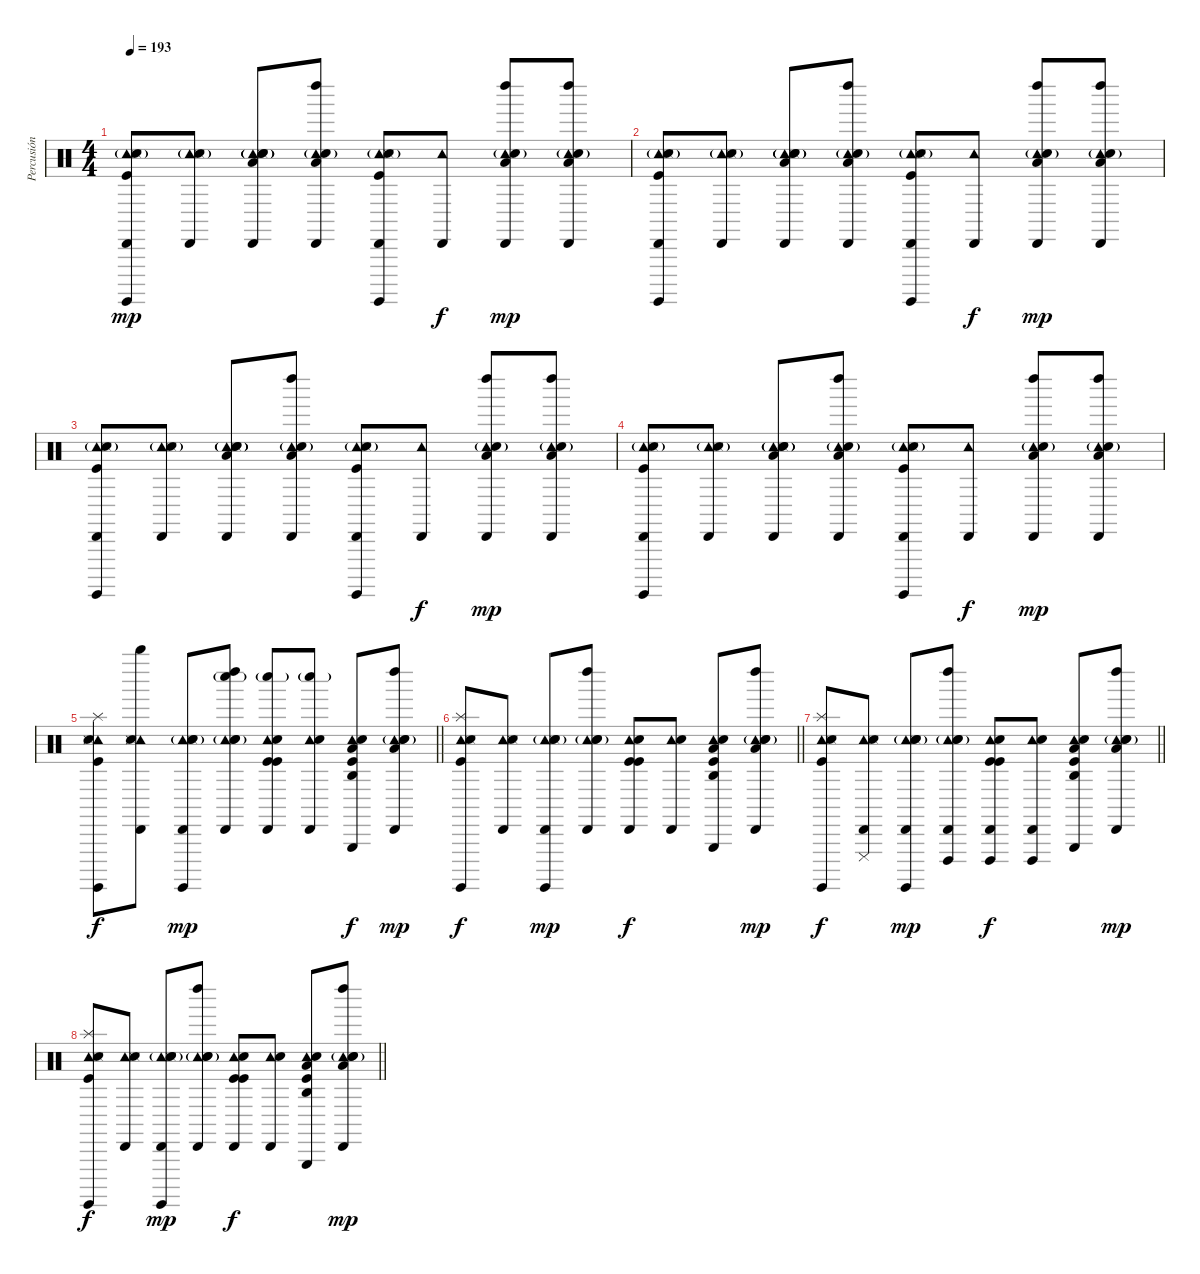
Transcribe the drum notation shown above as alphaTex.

\track ("Percusión" "Percusión") {instrument percussion}
\staff {score}
\articulation defaults
\ts (4 4)
\tempo 193
\clef neutral
\ks c
("Cabasa (hit)" "Tambourine (hit)" "Hand Clap (hit)"{g} "Metronome (hit)" "Surdo (hit)" "Kick (hit)").8{dy mp} ("Cabasa (hit)" "Tambourine (hit)" "Hand Clap (hit)"{g} "Metronome (hit)").8 ("Cabasa (hit)" "Tambourine (hit)" "Hand Clap (hit)"{g} "Metronome (hit)" "Low Tom (hit)" "Electric Snare (hit)"{g}).8 ("Cabasa (hit)" "Tambourine (hit)" "Left Maraca (hit)" "Low Tom (hit)" "Electric Snare (hit)"{g}).8 ("Cabasa (hit)" "Tambourine (hit)" "Hand Clap (hit)"{g} "Metronome (hit)" "Surdo (hit)" "Kick (hit)").8 ("Cabasa (hit)" "Tambourine (hit)").8{dy f} ("Cabasa (hit)" "Tambourine (hit)" "Left Maraca (hit)" "Low Tom (hit)" "Electric Snare (hit)"{g}).8{dy mp} ("Cabasa (hit)" "Tambourine (hit)" "Left Maraca (hit)" "Low Tom (hit)" "Electric Snare (hit)"{g}).8 |
("Cabasa (hit)" "Tambourine (hit)" "Hand Clap (hit)"{g} "Metronome (hit)" "Surdo (hit)" "Kick (hit)").8 ("Cabasa (hit)" "Tambourine (hit)" "Hand Clap (hit)"{g} "Metronome (hit)").8 ("Cabasa (hit)" "Tambourine (hit)" "Hand Clap (hit)"{g} "Metronome (hit)" "Low Tom (hit)" "Electric Snare (hit)"{g}).8 ("Cabasa (hit)" "Tambourine (hit)" "Left Maraca (hit)" "Low Tom (hit)" "Electric Snare (hit)"{g}).8 ("Cabasa (hit)" "Tambourine (hit)" "Hand Clap (hit)"{g} "Metronome (hit)" "Surdo (hit)" "Kick (hit)").8 ("Cabasa (hit)" "Tambourine (hit)").8{dy f} ("Cabasa (hit)" "Tambourine (hit)" "Left Maraca (hit)" "Low Tom (hit)" "Electric Snare (hit)"{g}).8{dy mp} ("Cabasa (hit)" "Tambourine (hit)" "Left Maraca (hit)" "Low Tom (hit)" "Electric Snare (hit)"{g}).8 |
("Cabasa (hit)" "Tambourine (hit)" "Hand Clap (hit)"{g} "Metronome (hit)" "Surdo (hit)" "Kick (hit)").8 ("Cabasa (hit)" "Tambourine (hit)" "Hand Clap (hit)"{g} "Metronome (hit)").8 ("Cabasa (hit)" "Tambourine (hit)" "Hand Clap (hit)"{g} "Metronome (hit)" "Low Tom (hit)" "Electric Snare (hit)"{g}).8 ("Cabasa (hit)" "Tambourine (hit)" "Left Maraca (hit)" "Low Tom (hit)" "Electric Snare (hit)"{g}).8 ("Cabasa (hit)" "Tambourine (hit)" "Hand Clap (hit)"{g} "Metronome (hit)" "Surdo (hit)" "Kick (hit)").8 ("Cabasa (hit)" "Tambourine (hit)").8{dy f} ("Cabasa (hit)" "Tambourine (hit)" "Left Maraca (hit)" "Low Tom (hit)" "Electric Snare (hit)"{g}).8{dy mp} ("Cabasa (hit)" "Tambourine (hit)" "Left Maraca (hit)" "Low Tom (hit)" "Electric Snare (hit)"{g}).8 |
("Cabasa (hit)" "Tambourine (hit)" "Hand Clap (hit)"{g} "Metronome (hit)" "Surdo (hit)" "Kick (hit)").8 ("Cabasa (hit)" "Tambourine (hit)" "Hand Clap (hit)"{g} "Metronome (hit)").8 ("Cabasa (hit)" "Tambourine (hit)" "Hand Clap (hit)"{g} "Metronome (hit)" "Low Tom (hit)" "Electric Snare (hit)"{g}).8 ("Cabasa (hit)" "Tambourine (hit)" "Left Maraca (hit)" "Low Tom (hit)" "Electric Snare (hit)"{g}).8 ("Cabasa (hit)" "Tambourine (hit)" "Hand Clap (hit)"{g} "Metronome (hit)" "Surdo (hit)" "Kick (hit)").8 ("Cabasa (hit)" "Tambourine (hit)").8{dy f} ("Cabasa (hit)" "Tambourine (hit)" "Left Maraca (hit)" "Low Tom (hit)" "Electric Snare (hit)"{g}).8{dy mp} ("Cabasa (hit)" "Tambourine (hit)" "Left Maraca (hit)" "Low Tom (hit)" "Electric Snare (hit)"{g}).8 |
\barLineRight lightlight
("Splash (hit)" "Tambourine (hit)" "Hand Clap (hit)" "Metronome (hit)" "Surdo (hit)" "Kick (hit)").8{dy f} ("Cabasa (hit)" "Tambourine (hit)" "Hand Clap (hit)" "Metronome (hit)" "Whistle high (hit)").8 ("Cabasa (hit)" "Tambourine (hit)" "Hand Clap (hit)" "Metronome (hit)" "Surdo (hit)" "Electric Snare (hit)"{g}).8{dy mp} ("Cabasa (hit)" "Tambourine (hit)" "Left Maraca (hit)" "Hand Clap (hit)" "Whistle low (hit)"{g} "Electric Snare (hit)"{g}).8 ("Cabasa (hit)" "Tambourine (hit)" "Hand Clap (hit)" "Whistle low (hit)"{g} "Kick (hit)" "Kick (hit)").8 ("Cabasa (hit)" "Tambourine (hit)" "Hand Clap (hit)" "Whistle low (hit)"{g}).8 ("Triangle (hit)" "Tambourine (hit)" "Hand Clap (hit)" "Agogo high (hit)" "Low Tom (hit)" "Kick (hit)").8{dy f} ("Cabasa (hit)" "Tambourine (hit)" "Left Maraca (hit)" "Hand Clap (hit)" "Low Tom (hit)" "Electric Snare (hit)"{g}).8{dy mp} |
\barLineRight lightlight
("Splash (hit)" "Tambourine (hit)" "Hand Clap (hit)" "Metronome (hit)" "Surdo (hit)" "Kick (hit)").8{dy f} ("Cabasa (hit)" "Tambourine (hit)" "Hand Clap (hit)" "Metronome (hit)").8 ("Cabasa (hit)" "Tambourine (hit)" "Hand Clap (hit)" "Metronome (hit)" "Surdo (hit)" "Electric Snare (hit)"{g}).8{dy mp} ("Cabasa (hit)" "Tambourine (hit)" "Left Maraca (hit)" "Hand Clap (hit)" "Electric Snare (hit)"{g}).8 ("Cabasa (hit)" "Tambourine (hit)" "Hand Clap (hit)" "Kick (hit)" "Kick (hit)").8{dy f} ("Cabasa (hit)" "Tambourine (hit)" "Hand Clap (hit)").8 ("Triangle (hit)" "Tambourine (hit)" "Hand Clap (hit)" "Agogo high (hit)" "Low Tom (hit)" "Kick (hit)").8 ("Cabasa (hit)" "Tambourine (hit)" "Left Maraca (hit)" "Hand Clap (hit)" "Low Tom (hit)" "Electric Snare (hit)"{g}).8{dy mp} |
\barLineRight lightlight
("Splash (hit)" "Tambourine (hit)" "Hand Clap (hit)" "Metronome (hit)" "Surdo (hit)" "Kick (hit)").8{dy f} ("Cabasa (hit)" "Tambourine (hit)" "Hand Clap (hit)" "Metronome (hit)" "Cuica (mute)").8 ("Cabasa (hit)" "Tambourine (hit)" "Hand Clap (hit)" "Metronome (hit)" "Surdo (hit)" "Electric Snare (hit)"{g}).8{dy mp} ("Cabasa (hit)" "Tambourine (hit)" "Left Maraca (hit)" "Hand Clap (hit)" "Cuica (open)" "Electric Snare (hit)"{g}).8 ("Cabasa (hit)" "Tambourine (hit)" "Hand Clap (hit)" "Cuica (open)" "Kick (hit)" "Kick (hit)").8{dy f} ("Cabasa (hit)" "Tambourine (hit)" "Hand Clap (hit)" "Cuica (open)").8 ("Triangle (hit)" "Tambourine (hit)" "Hand Clap (hit)" "Agogo high (hit)" "Low Tom (hit)" "Kick (hit)").8 ("Cabasa (hit)" "Tambourine (hit)" "Left Maraca (hit)" "Hand Clap (hit)" "Low Tom (hit)" "Electric Snare (hit)"{g}).8{dy mp} |
\barLineRight lightlight
("Splash (hit)" "Tambourine (hit)" "Hand Clap (hit)" "Metronome (hit)" "Surdo (hit)" "Kick (hit)").8{dy f} ("Cabasa (hit)" "Tambourine (hit)" "Hand Clap (hit)" "Metronome (hit)").8 ("Cabasa (hit)" "Tambourine (hit)" "Hand Clap (hit)" "Metronome (hit)" "Surdo (hit)" "Electric Snare (hit)"{g}).8{dy mp} ("Cabasa (hit)" "Tambourine (hit)" "Left Maraca (hit)" "Hand Clap (hit)" "Electric Snare (hit)"{g}).8 ("Cabasa (hit)" "Tambourine (hit)" "Hand Clap (hit)" "Kick (hit)" "Kick (hit)").8{dy f} ("Cabasa (hit)" "Tambourine (hit)" "Hand Clap (hit)").8 ("Triangle (hit)" "Tambourine (hit)" "Hand Clap (hit)" "Agogo high (hit)" "Low Tom (hit)" "Kick (hit)").8 ("Cabasa (hit)" "Tambourine (hit)" "Left Maraca (hit)" "Hand Clap (hit)" "Low Tom (hit)" "Electric Snare (hit)"{g}).8{dy mp}
